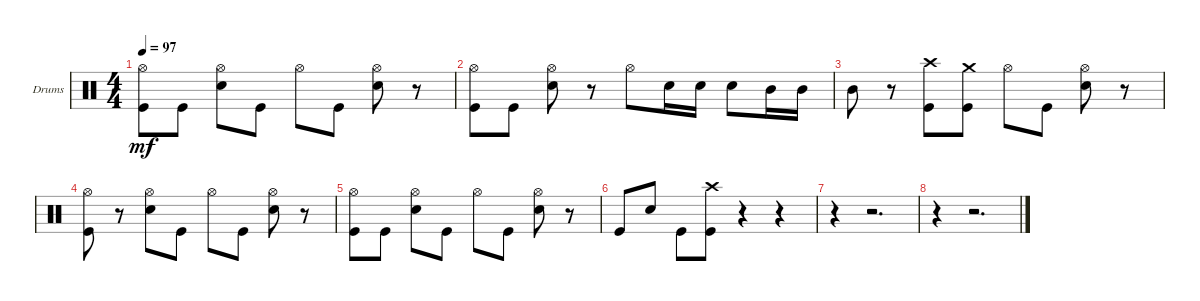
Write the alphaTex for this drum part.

\bracketExtendMode groupsimilarinstruments
\firstSystemTrackNameOrientation horizontal
\otherSystemsTrackNameOrientation horizontal
\track ("Drumkit" "Drums") {instrument percussion}
\staff {score}
\articulation defaults
\ts (4 4)
\tempo 97
\clef neutral
\ks c
("Hi-Hat (open)" "Kick (hit)").8{dy mf} "Kick (hit)".8 ("Hi-Hat (open)" "Snare (hit) 2").8 "Kick (hit)".8 "Hi-Hat (open)".8 "Kick (hit)".8 ("Hi-Hat (open)" "Snare (hit) 2").8 r.8 |
("Hi-Hat (open)" "Kick (hit)").8 "Kick (hit)".8 ("Hi-Hat (open)" "Snare (hit) 2").8 r.8 "Hi-Hat (open)".8 "Snare (hit) 2".16 "Snare (hit) 2".16 "Snare (hit) 2".8 "Mid Tom (hit)".16 "Mid Tom (hit)".16 |
"Mid Tom (hit)".8 r.8 ("Crash high (hit)" "Kick (hit)").8 ("Crash medium (hit)" "Kick (hit)").8 "Hi-Hat (open)".8 "Kick (hit)".8 ("Hi-Hat (open)" "Snare (hit) 2").8 r.8 |
("Hi-Hat (open)" "Kick (hit)").8 r.8 ("Hi-Hat (open)" "Snare (hit) 2").8 "Kick (hit)".8 "Hi-Hat (open)".8 "Kick (hit)".8 ("Hi-Hat (open)" "Snare (hit) 2").8 r.8 |
("Hi-Hat (open)" "Kick (hit)").8 "Kick (hit)".8 ("Hi-Hat (open)" "Snare (hit) 2").8 "Kick (hit)".8 "Hi-Hat (open)".8 "Kick (hit)".8 ("Hi-Hat (open)" "Snare (hit) 2").8 r.8 |
"Kick (hit)".8 "Snare (hit) 2".8 "Kick (hit)".8 ("Crash high (hit)" "Kick (hit)").8 r.4 r.4 |
r.4 r.2{d} |
r.4 r.2{d}
